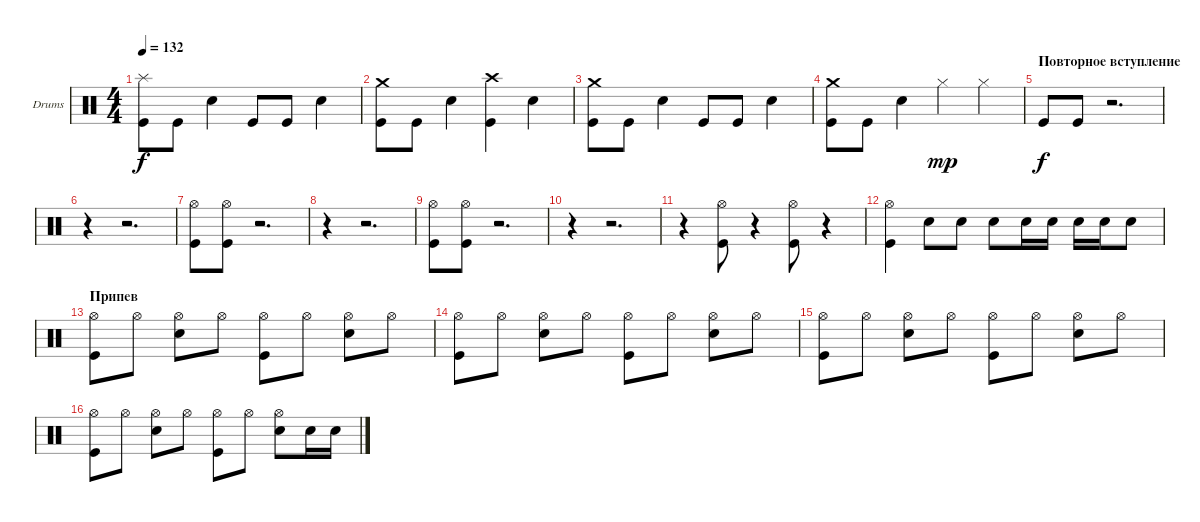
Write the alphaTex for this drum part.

\bracketExtendMode groupsimilarinstruments
\firstSystemTrackNameOrientation horizontal
\otherSystemsTrackNameOrientation horizontal
\track ("Александр Львов" "Drums") {instrument percussion}
\staff {score}
\articulation defaults
\ts (4 4)
\tempo 132
\clef neutral
\ks c
("Kick (hit)" "Splash (hit)").8{dy f} "Kick (hit)".8 "Snare (hit) 2".4 "Kick (hit)".8 "Kick (hit)".8 "Snare (hit) 2".4 |
("Kick (hit)" "Crash medium (hit)").8 "Kick (hit)".8 "Snare (hit) 2".4 ("Kick (hit)" "Crash high (hit)").4 "Snare (hit) 2".4 |
("Kick (hit)" "Crash medium (hit)").8 "Kick (hit)".8 "Snare (hit) 2".4 "Kick (hit)".8 "Kick (hit)".8 "Snare (hit) 2".4 |
("Kick (hit)" "Crash medium (hit)").8 "Kick (hit)".8 "Snare (hit) 2".4 "Hi-Hat (closed)".4{dy mp} "Hi-Hat (closed)".4 |
\section ("" "Повторное вступление")
"Kick (hit)".8{dy f} "Kick (hit)".8 r.2{d} |
r.4 r.2{d} |
("Hi-Hat (open)" "Kick (hit)").8 ("Hi-Hat (open)" "Kick (hit)").8 r.2{d} |
r.4 r.2{d} |
("Hi-Hat (open)" "Kick (hit)").8 ("Hi-Hat (open)" "Kick (hit)").8 r.2{d} |
r.4 r.2{d} |
r.4 ("Kick (hit)" "Hi-Hat (open)").8 r.4 ("Hi-Hat (open)" "Kick (hit)").8 r.4 |
("Hi-Hat (open)" "Kick (hit)").4 "Snare (hit) 2".8 "Snare (hit) 2".8 "Snare (hit) 2".8 "Snare (hit) 2".16 "Snare (hit) 2".16 "Snare (hit) 2".16 "Snare (hit) 2".16 "Snare (hit) 2".8 |
\section ("" "Припев")
("Hi-Hat (open)" "Kick (hit)").8 "Hi-Hat (open)".8 ("Hi-Hat (open)" "Snare (hit) 2").8 "Hi-Hat (open)".8 ("Hi-Hat (open)" "Kick (hit)").8 "Hi-Hat (open)".8 ("Hi-Hat (open)" "Snare (hit) 2").8 "Hi-Hat (open)".8 |
("Hi-Hat (open)" "Kick (hit)").8 "Hi-Hat (open)".8 ("Hi-Hat (open)" "Snare (hit) 2").8 "Hi-Hat (open)".8 ("Hi-Hat (open)" "Kick (hit)").8 "Hi-Hat (open)".8 ("Hi-Hat (open)" "Snare (hit) 2").8 "Hi-Hat (open)".8 |
("Hi-Hat (open)" "Kick (hit)").8 "Hi-Hat (open)".8 ("Hi-Hat (open)" "Snare (hit) 2").8 "Hi-Hat (open)".8 ("Hi-Hat (open)" "Kick (hit)").8 "Hi-Hat (open)".8 ("Hi-Hat (open)" "Snare (hit) 2").8 "Hi-Hat (open)".8 |
("Hi-Hat (open)" "Kick (hit)").8 "Hi-Hat (open)".8 ("Hi-Hat (open)" "Snare (hit) 2").8 "Hi-Hat (open)".8 ("Hi-Hat (open)" "Kick (hit)").8 "Hi-Hat (open)".8 ("Hi-Hat (open)" "Snare (hit) 2").8 "Snare (hit) 2".16 "Snare (hit) 2".16
